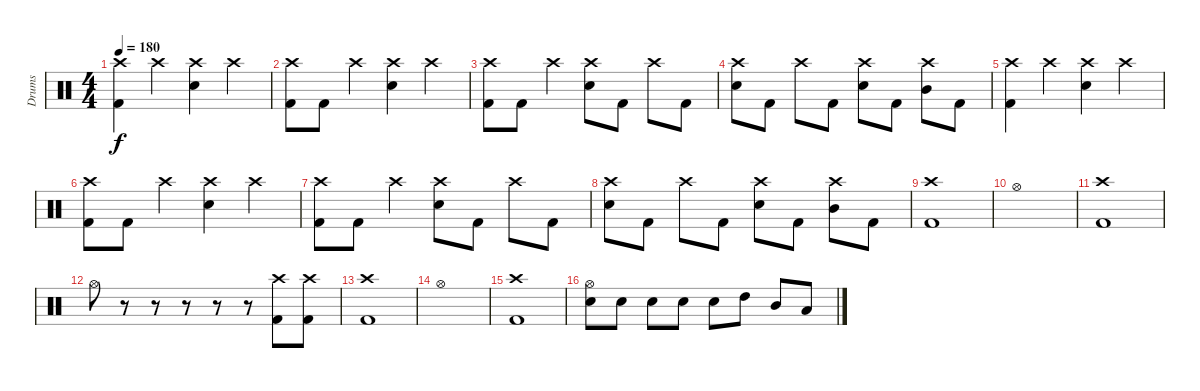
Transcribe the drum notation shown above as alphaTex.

\track ("Drums" "Drums") {instrument percussion}
\staff {score}
\articulation defaults
\ts (4 4)
\tempo 180
\clef neutral
\ks c
("Crash high (hit)" "Kick (hit) 2").4{dy f} "Crash high (hit)".4 ("Crash high (hit)" "Electric Snare (hit)").4 "Crash high (hit)".4 |
("Crash high (hit)" "Kick (hit) 2").8 "Kick (hit) 2".8 "Crash high (hit)".4 ("Crash high (hit)" "Electric Snare (hit)").4 "Crash high (hit)".4 |
("Crash high (hit)" "Kick (hit) 2").8 "Kick (hit) 2".8 "Crash high (hit)".4 ("Crash high (hit)" "Electric Snare (hit)").8 "Kick (hit) 2".8 "Crash high (hit)".8 "Kick (hit) 2".8 |
("Crash high (hit)" "Electric Snare (hit)").8 "Kick (hit) 2".8 "Crash high (hit)".8 "Kick (hit) 2".8 ("Crash high (hit)" "Electric Snare (hit)").8 "Kick (hit) 2".8 ("Crash high (hit)" "Mid Tom (hit)").8 "Kick (hit) 2".8 |
("Crash high (hit)" "Kick (hit) 2").4 "Crash high (hit)".4 ("Crash high (hit)" "Electric Snare (hit)").4 "Crash high (hit)".4 |
("Crash high (hit)" "Kick (hit) 2").8 "Kick (hit) 2".8 "Crash high (hit)".4 ("Crash high (hit)" "Electric Snare (hit)").4 "Crash high (hit)".4 |
("Crash high (hit)" "Kick (hit) 2").8 "Kick (hit) 2".8 "Crash high (hit)".4 ("Crash high (hit)" "Electric Snare (hit)").8 "Kick (hit) 2".8 "Crash high (hit)".8 "Kick (hit) 2".8 |
("Crash high (hit)" "Electric Snare (hit)").8 "Kick (hit) 2".8 "Crash high (hit)".8 "Kick (hit) 2".8 ("Crash high (hit)" "Electric Snare (hit)").8 "Kick (hit) 2".8 ("Crash high (hit)" "Mid Tom (hit)").8 "Kick (hit) 2".8 |
("Crash high (hit)" "Kick (hit) 2").1 |
"Hi-Hat (open)".1 |
("Crash high (hit)" "Kick (hit) 2").1 |
"Hi-Hat (open)".8 r.8 r.8 r.8 r.8 r.8 ("Crash high (hit)" "Kick (hit) 2").8 ("Crash high (hit)" "Kick (hit) 2").8 |
("Crash high (hit)" "Kick (hit) 2").1 |
"Hi-Hat (open)".1 |
("Crash high (hit)" "Kick (hit) 2").1 |
("Hi-Hat (open)" "Electric Snare (hit)").8 "Electric Snare (hit)".8 "Electric Snare (hit)".8 "Electric Snare (hit)".8 "Electric Snare (hit)".8 "High Tom (hit)".8 "Mid Tom (hit)".8 "Low Tom (hit)".8
